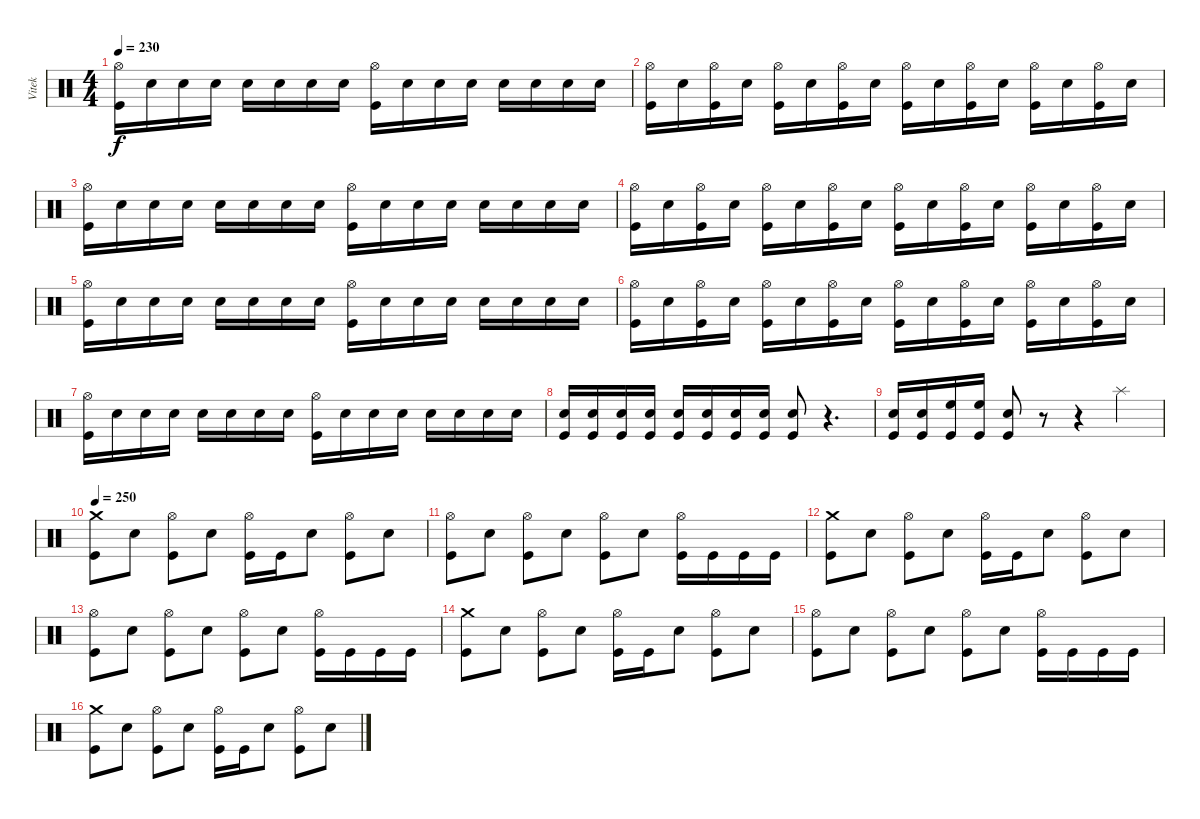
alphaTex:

\track ("Vitek" "Vitek") {instrument percussion}
\staff {score}
\articulation defaults
\ts (4 4)
\tempo 230
\clef neutral
\ks c
("Hi-Hat (open)" "Kick (hit)").16{dy f} "Snare (hit) 2".16 "Snare (hit) 2".16 "Snare (hit) 2".16 "Snare (hit) 2".16 "Snare (hit) 2".16 "Snare (hit) 2".16 "Snare (hit) 2".16 ("Hi-Hat (open)" "Kick (hit)").16 "Snare (hit) 2".16 "Snare (hit) 2".16 "Snare (hit) 2".16 "Snare (hit) 2".16 "Snare (hit) 2".16 "Snare (hit) 2".16 "Snare (hit) 2".16 |
("Hi-Hat (open)" "Kick (hit)").16 "Snare (hit) 2".16 ("Hi-Hat (open)" "Kick (hit)").16 "Snare (hit) 2".16 ("Hi-Hat (open)" "Kick (hit)").16 "Snare (hit) 2".16 ("Hi-Hat (open)" "Kick (hit)").16 "Snare (hit) 2".16 ("Hi-Hat (open)" "Kick (hit)").16 "Snare (hit) 2".16 ("Hi-Hat (open)" "Kick (hit)").16 "Snare (hit) 2".16 ("Hi-Hat (open)" "Kick (hit)").16 "Snare (hit) 2".16 ("Hi-Hat (open)" "Kick (hit)").16 "Snare (hit) 2".16 |
("Hi-Hat (open)" "Kick (hit)").16 "Snare (hit) 2".16 "Snare (hit) 2".16 "Snare (hit) 2".16 "Snare (hit) 2".16 "Snare (hit) 2".16 "Snare (hit) 2".16 "Snare (hit) 2".16 ("Hi-Hat (open)" "Kick (hit)").16 "Snare (hit) 2".16 "Snare (hit) 2".16 "Snare (hit) 2".16 "Snare (hit) 2".16 "Snare (hit) 2".16 "Snare (hit) 2".16 "Snare (hit) 2".16 |
("Hi-Hat (open)" "Kick (hit)").16 "Snare (hit) 2".16 ("Hi-Hat (open)" "Kick (hit)").16 "Snare (hit) 2".16 ("Hi-Hat (open)" "Kick (hit)").16 "Snare (hit) 2".16 ("Hi-Hat (open)" "Kick (hit)").16 "Snare (hit) 2".16 ("Hi-Hat (open)" "Kick (hit)").16 "Snare (hit) 2".16 ("Hi-Hat (open)" "Kick (hit)").16 "Snare (hit) 2".16 ("Hi-Hat (open)" "Kick (hit)").16 "Snare (hit) 2".16 ("Hi-Hat (open)" "Kick (hit)").16 "Snare (hit) 2".16 |
("Hi-Hat (open)" "Kick (hit)").16 "Snare (hit) 2".16 "Snare (hit) 2".16 "Snare (hit) 2".16 "Snare (hit) 2".16 "Snare (hit) 2".16 "Snare (hit) 2".16 "Snare (hit) 2".16 ("Hi-Hat (open)" "Kick (hit)").16 "Snare (hit) 2".16 "Snare (hit) 2".16 "Snare (hit) 2".16 "Snare (hit) 2".16 "Snare (hit) 2".16 "Snare (hit) 2".16 "Snare (hit) 2".16 |
("Hi-Hat (open)" "Kick (hit)").16 "Snare (hit) 2".16 ("Hi-Hat (open)" "Kick (hit)").16 "Snare (hit) 2".16 ("Hi-Hat (open)" "Kick (hit)").16 "Snare (hit) 2".16 ("Hi-Hat (open)" "Kick (hit)").16 "Snare (hit) 2".16 ("Hi-Hat (open)" "Kick (hit)").16 "Snare (hit) 2".16 ("Hi-Hat (open)" "Kick (hit)").16 "Snare (hit) 2".16 ("Hi-Hat (open)" "Kick (hit)").16 "Snare (hit) 2".16 ("Hi-Hat (open)" "Kick (hit)").16 "Snare (hit) 2".16 |
("Hi-Hat (open)" "Kick (hit)").16 "Snare (hit) 2".16 "Snare (hit) 2".16 "Snare (hit) 2".16 "Snare (hit) 2".16 "Snare (hit) 2".16 "Snare (hit) 2".16 "Snare (hit) 2".16 ("Hi-Hat (open)" "Kick (hit)").16 "Snare (hit) 2".16 "Snare (hit) 2".16 "Snare (hit) 2".16 "Snare (hit) 2".16 "Snare (hit) 2".16 "Snare (hit) 2".16 "Snare (hit) 2".16 |
("Snare (hit) 2" "Kick (hit)").16 ("Snare (hit) 2" "Kick (hit)").16 ("Snare (hit) 2" "Kick (hit)").16 ("Snare (hit) 2" "Kick (hit)").16 ("Snare (hit) 2" "Kick (hit)").16 ("Snare (hit) 2" "Kick (hit)").16 ("Snare (hit) 2" "Kick (hit)").16 ("Snare (hit) 2" "Kick (hit)").16 ("Snare (hit) 2" "Kick (hit)").8 r.4{d} |
("Snare (hit) 2" "Kick (hit)").16 ("Snare (hit) 2" "Kick (hit)").16 ("High Floor Tom (hit)" "Kick (hit)").16 ("High Floor Tom (hit)" "Kick (hit)").16 ("Snare (hit) 2" "Kick (hit)").8 r.8 r.4 "Splash (hit)".4 |
\tempo 250
("Crash medium (hit)" "Kick (hit)").8 "Snare (hit) 2".8 ("Hi-Hat (open)" "Kick (hit)").8 "Snare (hit) 2".8 ("Hi-Hat (open)" "Kick (hit)").16 "Kick (hit)".16 "Snare (hit) 2".8 ("Hi-Hat (open)" "Kick (hit)").8 "Snare (hit) 2".8 |
("Hi-Hat (open)" "Kick (hit)").8 "Snare (hit) 2".8 ("Hi-Hat (open)" "Kick (hit)").8 "Snare (hit) 2".8 ("Hi-Hat (open)" "Kick (hit)").8 "Snare (hit) 2".8 ("Hi-Hat (open)" "Kick (hit)").16 "Kick (hit)".16 "Kick (hit)".16 "Kick (hit)".16 |
("Crash medium (hit)" "Kick (hit)").8 "Snare (hit) 2".8 ("Hi-Hat (open)" "Kick (hit)").8 "Snare (hit) 2".8 ("Hi-Hat (open)" "Kick (hit)").16 "Kick (hit)".16 "Snare (hit) 2".8 ("Hi-Hat (open)" "Kick (hit)").8 "Snare (hit) 2".8 |
("Hi-Hat (open)" "Kick (hit)").8 "Snare (hit) 2".8 ("Hi-Hat (open)" "Kick (hit)").8 "Snare (hit) 2".8 ("Hi-Hat (open)" "Kick (hit)").8 "Snare (hit) 2".8 ("Hi-Hat (open)" "Kick (hit)").16 "Kick (hit)".16 "Kick (hit)".16 "Kick (hit)".16 |
("Crash medium (hit)" "Kick (hit)").8 "Snare (hit) 2".8 ("Hi-Hat (open)" "Kick (hit)").8 "Snare (hit) 2".8 ("Hi-Hat (open)" "Kick (hit)").16 "Kick (hit)".16 "Snare (hit) 2".8 ("Hi-Hat (open)" "Kick (hit)").8 "Snare (hit) 2".8 |
("Hi-Hat (open)" "Kick (hit)").8 "Snare (hit) 2".8 ("Hi-Hat (open)" "Kick (hit)").8 "Snare (hit) 2".8 ("Hi-Hat (open)" "Kick (hit)").8 "Snare (hit) 2".8 ("Hi-Hat (open)" "Kick (hit)").16 "Kick (hit)".16 "Kick (hit)".16 "Kick (hit)".16 |
("Crash medium (hit)" "Kick (hit)").8 "Snare (hit) 2".8 ("Hi-Hat (open)" "Kick (hit)").8 "Snare (hit) 2".8 ("Hi-Hat (open)" "Kick (hit)").16 "Kick (hit)".16 "Snare (hit) 2".8 ("Hi-Hat (open)" "Kick (hit)").8 "Snare (hit) 2".8
